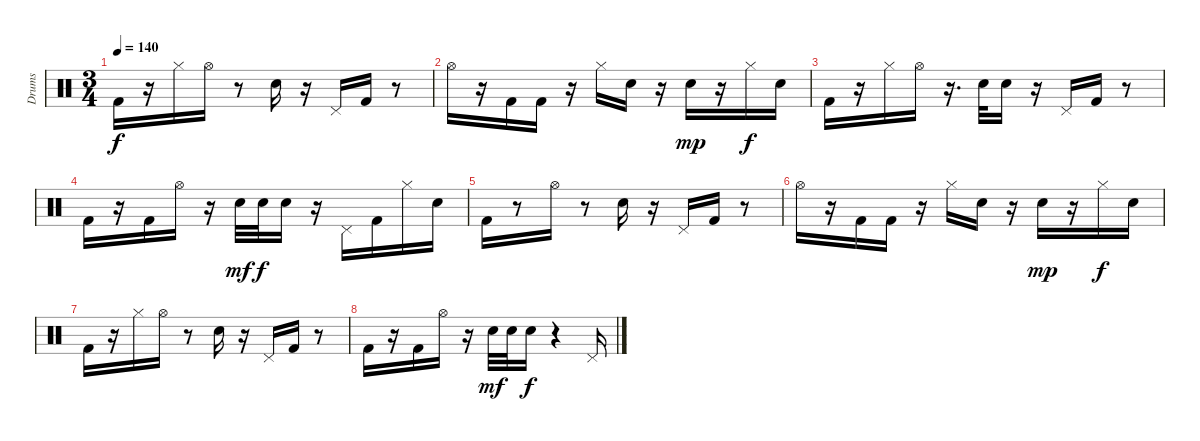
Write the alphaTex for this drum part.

\track ("Drums" "Drums") {instrument percussion}
\staff {score}
\articulation defaults
\ts (3 4)
\tempo 140
\clef neutral
\ks c "Kick (hit) 2".16{dy f}
r.16 "Hi-Hat (closed)".16 "Hi-Hat (open)".16 r.8 "Electric Snare (hit)".16 r.16 "Pedal Hi-Hat (hit)".16 "Kick (hit) 2".16 r.8 |
"Hi-Hat (open)".16 r.16 "Kick (hit) 2".16 "Kick (hit) 2".16 r.16 "Hi-Hat (closed)".16 "Electric Snare (hit)".16 r.16 "Electric Snare (hit)".16{dy mp} r.16 "Hi-Hat (closed)".16{dy f} "Electric Snare (hit)".16 |
"Kick (hit) 2".16 r.16 "Hi-Hat (closed)".16 "Hi-Hat (open)".16 r.16{d} "Electric Snare (hit)".32 "Electric Snare (hit)".16 r.16 "Pedal Hi-Hat (hit)".16 "Kick (hit) 2".16 r.8 |
"Kick (hit) 2".16 r.16 "Kick (hit) 2".16 "Hi-Hat (open)".16 r.16 "Electric Snare (hit)".32{dy mf} "Electric Snare (hit)".32{dy f} "Electric Snare (hit)".16 r.16 "Pedal Hi-Hat (hit)".16 "Kick (hit) 2".16 "Hi-Hat (closed)".16 "Electric Snare (hit)".16 |
"Kick (hit) 2".16 r.8 "Hi-Hat (open)".16 r.8 "Electric Snare (hit)".16 r.16 "Pedal Hi-Hat (hit)".16 "Kick (hit) 2".16 r.8 |
"Hi-Hat (open)".16 r.16 "Kick (hit) 2".16 "Kick (hit) 2".16 r.16 "Hi-Hat (closed)".16 "Electric Snare (hit)".16 r.16 "Electric Snare (hit)".16{dy mp} r.16 "Hi-Hat (closed)".16{dy f} "Electric Snare (hit)".16 |
"Kick (hit) 2".16 r.16 "Hi-Hat (closed)".16 "Hi-Hat (open)".16 r.8 "Electric Snare (hit)".16 r.16 "Pedal Hi-Hat (hit)".16 "Kick (hit) 2".16 r.8 |
"Kick (hit) 2".16 r.16 "Kick (hit) 2".16 "Hi-Hat (open)".16 r.16 "Electric Snare (hit)".32{dy mf} "Electric Snare (hit)".32 "Electric Snare (hit)".16{dy f} r.4 "Pedal Hi-Hat (hit)".16
